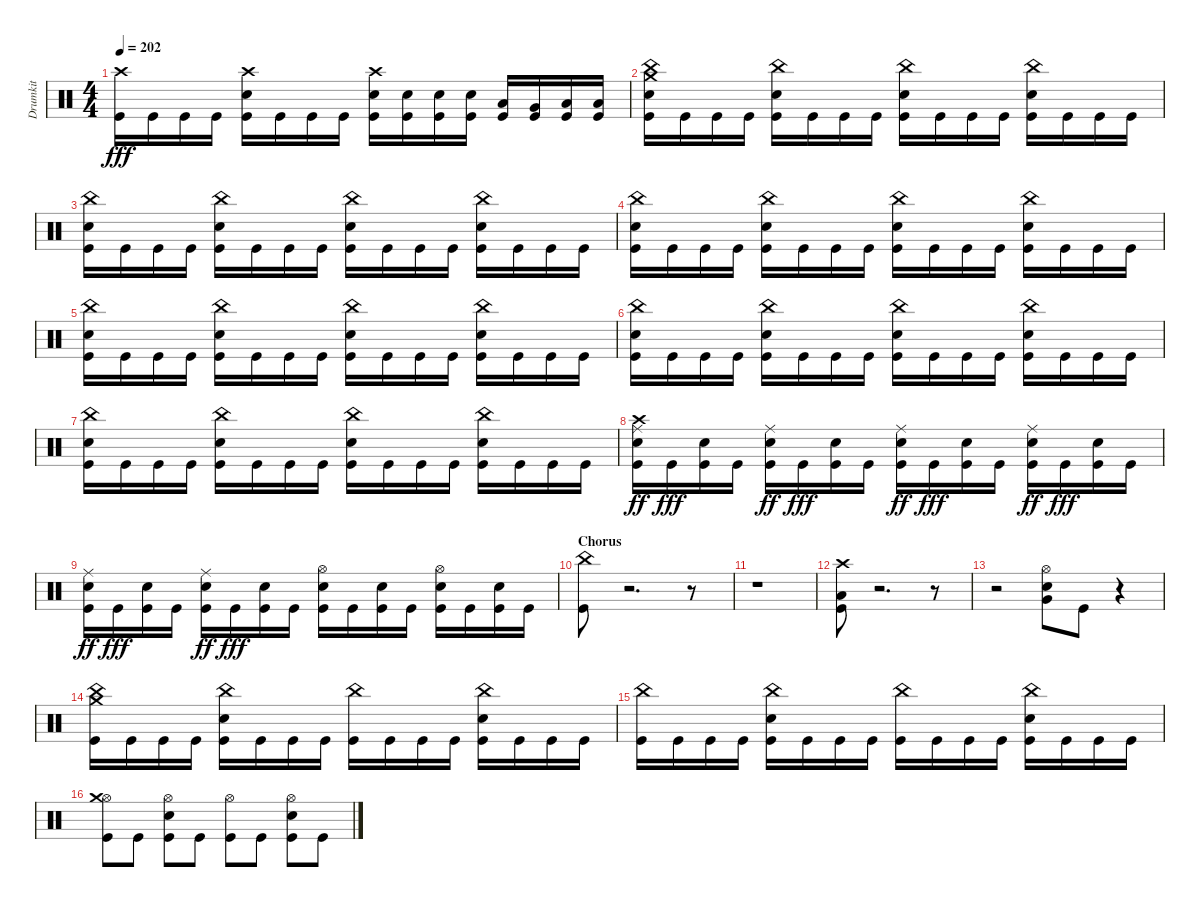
\track ("Drumkit" "Drumkit") {instrument percussion}
\staff {score}
\articulation defaults
\ts (4 4)
\tempo 202
\clef neutral
\ks c
("Crash high (hit)" "Kick (hit)").16{dy fff} "Kick (hit)".16 "Kick (hit)".16 "Kick (hit)".16 ("Snare (hit) 2" "Crash high (hit)" "Kick (hit)").16 "Kick (hit)".16 "Kick (hit)".16 "Kick (hit)".16 ("Snare (hit) 2" "Crash high (hit)" "Kick (hit)").16 ("Snare (hit) 2" "Kick (hit)").16 ("Snare (hit) 2" "Kick (hit)").16 ("Snare (hit) 2" "Kick (hit)").16 ("Low Tom (hit)" "Kick (hit)").16 ("Very Low Tom (hit)" "Kick (hit)").16 ("Low Floor Tom (hit)" "Kick (hit)").16 ("Low Floor Tom (hit)" "Kick (hit)").16 |
("China (hit)" "Snare (hit) 2" "Crash medium (hit)" "Kick (hit)").16 "Kick (hit)".16 "Kick (hit)".16 "Kick (hit)".16 ("China (hit)" "Snare (hit) 2" "Kick (hit)").16 "Kick (hit)".16 "Kick (hit)".16 "Kick (hit)".16 ("China (hit)" "Snare (hit) 2" "Kick (hit)").16 "Kick (hit)".16 "Kick (hit)".16 "Kick (hit)".16 ("China (hit)" "Snare (hit) 2" "Kick (hit)").16 "Kick (hit)".16 "Kick (hit)".16 "Kick (hit)".16 |
("China (hit)" "Snare (hit) 2" "Kick (hit)").16 "Kick (hit)".16 "Kick (hit)".16 "Kick (hit)".16 ("China (hit)" "Snare (hit) 2" "Kick (hit)").16 "Kick (hit)".16 "Kick (hit)".16 "Kick (hit)".16 ("China (hit)" "Snare (hit) 2" "Kick (hit)").16 "Kick (hit)".16 "Kick (hit)".16 "Kick (hit)".16 ("China (hit)" "Snare (hit) 2" "Kick (hit)").16 "Kick (hit)".16 "Kick (hit)".16 "Kick (hit)".16 |
("China (hit)" "Snare (hit) 2" "Kick (hit)").16 "Kick (hit)".16 "Kick (hit)".16 "Kick (hit)".16 ("China (hit)" "Snare (hit) 2" "Kick (hit)").16 "Kick (hit)".16 "Kick (hit)".16 "Kick (hit)".16 ("China (hit)" "Snare (hit) 2" "Kick (hit)").16 "Kick (hit)".16 "Kick (hit)".16 "Kick (hit)".16 ("China (hit)" "Snare (hit) 2" "Kick (hit)").16 "Kick (hit)".16 "Kick (hit)".16 "Kick (hit)".16 |
("China (hit)" "Snare (hit) 2" "Kick (hit)").16 "Kick (hit)".16 "Kick (hit)".16 "Kick (hit)".16 ("China (hit)" "Snare (hit) 2" "Kick (hit)").16 "Kick (hit)".16 "Kick (hit)".16 "Kick (hit)".16 ("China (hit)" "Snare (hit) 2" "Kick (hit)").16 "Kick (hit)".16 "Kick (hit)".16 "Kick (hit)".16 ("China (hit)" "Snare (hit) 2" "Kick (hit)").16 "Kick (hit)".16 "Kick (hit)".16 "Kick (hit)".16 |
("China (hit)" "Snare (hit) 2" "Kick (hit)").16 "Kick (hit)".16 "Kick (hit)".16 "Kick (hit)".16 ("China (hit)" "Snare (hit) 2" "Kick (hit)").16 "Kick (hit)".16 "Kick (hit)".16 "Kick (hit)".16 ("China (hit)" "Snare (hit) 2" "Kick (hit)").16 "Kick (hit)".16 "Kick (hit)".16 "Kick (hit)".16 ("China (hit)" "Snare (hit) 2" "Kick (hit)").16 "Kick (hit)".16 "Kick (hit)".16 "Kick (hit)".16 |
("China (hit)" "Snare (hit) 2" "Kick (hit)").16 "Kick (hit)".16 "Kick (hit)".16 "Kick (hit)".16 ("China (hit)" "Snare (hit) 2" "Kick (hit)").16 "Kick (hit)".16 "Kick (hit)".16 "Kick (hit)".16 ("China (hit)" "Snare (hit) 2" "Kick (hit)").16 "Kick (hit)".16 "Kick (hit)".16 "Kick (hit)".16 ("China (hit)" "Snare (hit) 2" "Kick (hit)").16 "Kick (hit)".16 "Kick (hit)".16 "Kick (hit)".16 |
("Ride (middle)" "Snare (hit) 2" "Crash high (hit)" "Kick (hit)").16{dy ff} "Kick (hit)".16{dy fff} ("Snare (hit) 2" "Kick (hit)").16 "Kick (hit)".16 ("Ride (middle)" "Snare (hit) 2" "Kick (hit)").16{dy ff} "Kick (hit)".16{dy fff} ("Snare (hit) 2" "Kick (hit)").16 "Kick (hit)".16 ("Ride (middle)" "Snare (hit) 2" "Kick (hit)").16{dy ff} "Kick (hit)".16{dy fff} ("Snare (hit) 2" "Kick (hit)").16 "Kick (hit)".16 ("Ride (middle)" "Snare (hit) 2" "Kick (hit)").16{dy ff} "Kick (hit)".16{dy fff} ("Snare (hit) 2" "Kick (hit)").16 "Kick (hit)".16 |
("Ride (middle)" "Snare (hit) 2" "Kick (hit)").16{dy ff} "Kick (hit)".16{dy fff} ("Snare (hit) 2" "Kick (hit)").16 "Kick (hit)".16 ("Ride (middle)" "Snare (hit) 2" "Kick (hit)").16{dy ff} "Kick (hit)".16{dy fff} ("Snare (hit) 2" "Kick (hit)").16 "Kick (hit)".16 ("Snare (hit) 2" "Hi-Hat (open)" "Kick (hit)").16 "Kick (hit)".16 ("Snare (hit) 2" "Kick (hit)").16 "Kick (hit)".16 ("Snare (hit) 2" "Hi-Hat (open)" "Kick (hit)").16 "Kick (hit)".16 ("Snare (hit) 2" "Kick (hit)").16 "Kick (hit)".16 |
\section ("" "Chorus")
("China (hit)" "Kick (hit)").8 r.2{d} r.8 |
r.1 |
("Low Tom (hit)" "Crash high (hit)" "Kick (hit)").8 r.2{d} r.8 |
r.2 ("Very Low Tom (hit)" "Snare (hit) 2" "Hi-Hat (open)").8 "Kick (hit)".8 r.4 |
("China (hit)" "Crash medium (hit)" "Kick (hit)").16 "Kick (hit)".16 "Kick (hit)".16 "Kick (hit)".16 ("China (hit)" "Snare (hit) 2" "Kick (hit)").16 "Kick (hit)".16 "Kick (hit)".16 "Kick (hit)".16 ("China (hit)" "Kick (hit)").16 "Kick (hit)".16 "Kick (hit)".16 "Kick (hit)".16 ("China (hit)" "Snare (hit) 2" "Kick (hit)").16 "Kick (hit)".16 "Kick (hit)".16 "Kick (hit)".16 |
("China (hit)" "Kick (hit)").16 "Kick (hit)".16 "Kick (hit)".16 "Kick (hit)".16 ("China (hit)" "Snare (hit) 2" "Kick (hit)").16 "Kick (hit)".16 "Kick (hit)".16 "Kick (hit)".16 ("China (hit)" "Kick (hit)").16 "Kick (hit)".16 "Kick (hit)".16 "Kick (hit)".16 ("China (hit)" "Snare (hit) 2" "Kick (hit)").16 "Kick (hit)".16 "Kick (hit)".16 "Kick (hit)".16 |
("Hi-Hat (open)" "Crash medium (hit)" "Kick (hit)").8 "Kick (hit)".8 ("Snare (hit) 2" "Hi-Hat (open)" "Kick (hit)").8 "Kick (hit)".8 ("Hi-Hat (open)" "Kick (hit)").8 "Kick (hit)".8 ("Snare (hit) 2" "Hi-Hat (open)" "Kick (hit)").8 "Kick (hit)".8
